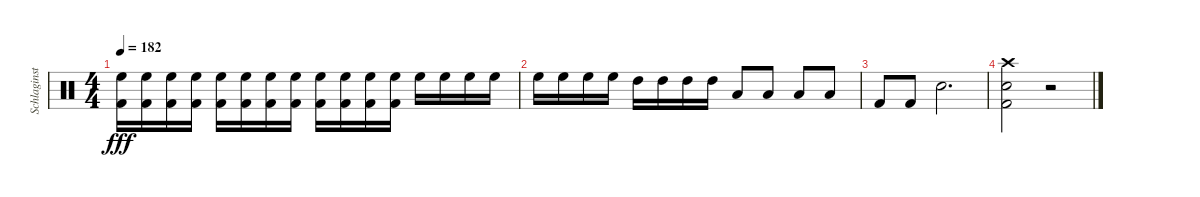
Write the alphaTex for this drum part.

\track ("Schlaginstrumente - Auswahl" "Schlaginst") {instrument percussion}
\staff {score}
\articulation defaults
\ts (4 4)
\tempo 182
\clef neutral
\ks c
("Kick (hit) 2" "High Floor Tom (hit)").16{dy fff} ("Kick (hit) 2" "High Floor Tom (hit)").16 ("Kick (hit) 2" "High Floor Tom (hit)").16 ("Kick (hit) 2" "High Floor Tom (hit)").16 ("Kick (hit) 2" "High Floor Tom (hit)").16 ("Kick (hit) 2" "High Floor Tom (hit)").16 ("Kick (hit) 2" "High Floor Tom (hit)").16 ("Kick (hit) 2" "High Floor Tom (hit)").16 ("Kick (hit) 2" "High Floor Tom (hit)").16 ("Kick (hit) 2" "High Floor Tom (hit)").16 ("Kick (hit) 2" "High Floor Tom (hit)").16 ("Kick (hit) 2" "High Floor Tom (hit)").16 "High Floor Tom (hit)".16 "High Floor Tom (hit)".16 "High Floor Tom (hit)".16 "High Floor Tom (hit)".16 |
"High Floor Tom (hit)".16 "High Floor Tom (hit)".16 "High Floor Tom (hit)".16 "High Floor Tom (hit)".16 "High Tom (hit)".16 "High Tom (hit)".16 "High Tom (hit)".16 "High Tom (hit)".16 "Low Tom (hit)".8 "Low Tom (hit)".8 "Low Tom (hit)".8 "Low Tom (hit)".8 |
"Kick (hit) 2".8 "Kick (hit) 2".8 "Snare (hit) 2".2{d} |
("Kick (hit) 2" "Snare (hit) 2" "Crash high (hit)").2 r.2
